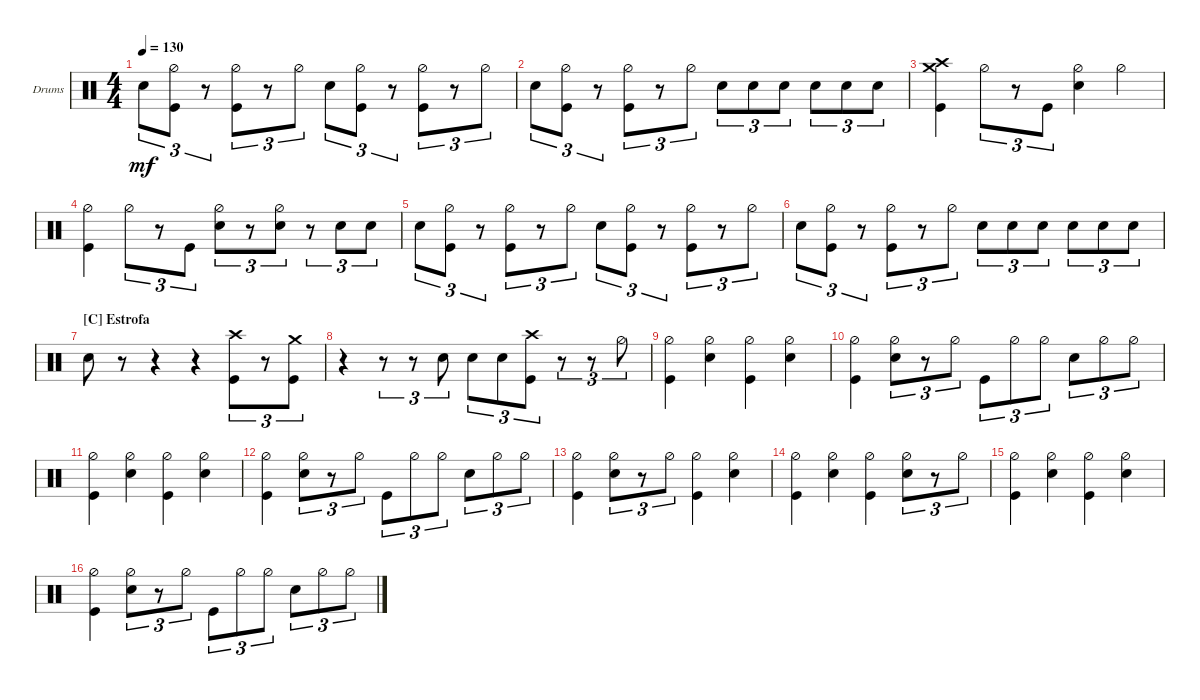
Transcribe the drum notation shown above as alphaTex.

\bracketExtendMode groupsimilarinstruments
\firstSystemTrackNameOrientation horizontal
\otherSystemsTrackNameOrientation horizontal
\track ("Drums Ghoul" "Drums") {instrument percussion}
\staff {score}
\articulation defaults
\ts (4 4)
\tempo 130
\clef neutral
\ks c "Snare (hit) 2".8{tu (3 2) dy mf}
("Kick (hit)" "Hi-Hat (half)").8{tu (3 2)} r.8{tu (3 2)} ("Kick (hit)" "Hi-Hat (half)").8{tu (3 2)} r.8{tu (3 2)} "Hi-Hat (half)".8{tu (3 2)} "Snare (hit) 2".8{tu (3 2)} ("Kick (hit)" "Hi-Hat (half)").8{tu (3 2)} r.8{tu (3 2)} ("Kick (hit)" "Hi-Hat (half)").8{tu (3 2)} r.8{tu (3 2)} "Hi-Hat (half)".8{tu (3 2)} |
"Snare (hit) 2".8{tu (3 2)} ("Kick (hit)" "Hi-Hat (half)").8{tu (3 2)} r.8{tu (3 2)} ("Kick (hit)" "Hi-Hat (half)").8{tu (3 2)} r.8{tu (3 2)} "Hi-Hat (half)".8{tu (3 2)} "Snare (hit) 2".8{tu (3 2)} "Snare (hit) 2".8{tu (3 2)} "Snare (hit) 2".8{tu (3 2)} "Snare (hit) 2".8{tu (3 2)} "Snare (hit) 2".8{tu (3 2)} "Snare (hit) 2".8{tu (3 2)} |
("Crash high (hit)" "Kick (hit)" "Crash medium (hit)").4 "Hi-Hat (half)".8{tu (3 2)} r.8{tu (3 2)} "Kick (hit)".8{tu (3 2)} ("Hi-Hat (half)" "Snare (hit) 2").4 "Hi-Hat (half)".4 |
("Kick (hit)" "Hi-Hat (half)").4 "Hi-Hat (half)".8{tu (3 2)} r.8{tu (3 2)} "Kick (hit)".8{tu (3 2)} ("Hi-Hat (half)" "Snare (hit) 2").8{tu (3 2)} r.8{tu (3 2)} ("Snare (hit) 2" "Hi-Hat (half)").8{tu (3 2)} r.8{tu (3 2)} "Snare (hit) 2".8{tu (3 2)} "Snare (hit) 2".8{tu (3 2)} |
"Snare (hit) 2".8{tu (3 2)} ("Kick (hit)" "Hi-Hat (half)").8{tu (3 2)} r.8{tu (3 2)} ("Kick (hit)" "Hi-Hat (half)").8{tu (3 2)} r.8{tu (3 2)} "Hi-Hat (half)".8{tu (3 2)} "Snare (hit) 2".8{tu (3 2)} ("Kick (hit)" "Hi-Hat (half)").8{tu (3 2)} r.8{tu (3 2)} ("Kick (hit)" "Hi-Hat (half)").8{tu (3 2)} r.8{tu (3 2)} "Hi-Hat (half)".8{tu (3 2)} |
"Snare (hit) 2".8{tu (3 2)} ("Kick (hit)" "Hi-Hat (half)").8{tu (3 2)} r.8{tu (3 2)} ("Kick (hit)" "Hi-Hat (half)").8{tu (3 2)} r.8{tu (3 2)} "Hi-Hat (half)".8{tu (3 2)} "Snare (hit) 2".8{tu (3 2)} "Snare (hit) 2".8{tu (3 2)} "Snare (hit) 2".8{tu (3 2)} "Snare (hit) 2".8{tu (3 2)} "Snare (hit) 2".8{tu (3 2)} "Snare (hit) 2".8{tu (3 2)} |
\section ("C" "Estrofa")
"Snare (hit) 2".8 r.8 r.4 r.4 ("Kick (hit)" "Crash high (hit)").8{tu (3 2)} r.8{tu (3 2)} ("Kick (hit)" "Crash medium (hit)").8{tu (3 2)} |
r.4 r.8{tu (3 2)} r.8{tu (3 2)} "Snare (hit) 2".8{tu (3 2)} "Snare (hit) 2".8{tu (3 2)} "Snare (hit) 2".8{tu (3 2)} ("Kick (hit)" "Crash high (hit)").8{tu (3 2)} r.8{tu (3 2)} r.8{tu (3 2)} "Hi-Hat (half)".8{tu (3 2)} |
("Kick (hit)" "Hi-Hat (half)").4 ("Snare (hit) 2" "Hi-Hat (half)").4 ("Kick (hit)" "Hi-Hat (half)").4 ("Snare (hit) 2" "Hi-Hat (half)").4 |
("Kick (hit)" "Hi-Hat (half)").4 ("Snare (hit) 2" "Hi-Hat (half)").8{tu (3 2)} r.8{tu (3 2)} "Hi-Hat (half)".8{tu (3 2)} "Kick (hit)".8{tu (3 2)} "Hi-Hat (half)".8{tu (3 2)} "Hi-Hat (half)".8{tu (3 2)} "Snare (hit) 2".8{tu (3 2)} "Hi-Hat (half)".8{tu (3 2)} "Hi-Hat (half)".8{tu (3 2)} |
("Kick (hit)" "Hi-Hat (half)").4 ("Snare (hit) 2" "Hi-Hat (half)").4 ("Kick (hit)" "Hi-Hat (half)").4 ("Snare (hit) 2" "Hi-Hat (half)").4 |
("Kick (hit)" "Hi-Hat (half)").4 ("Snare (hit) 2" "Hi-Hat (half)").8{tu (3 2)} r.8{tu (3 2)} "Hi-Hat (half)".8{tu (3 2)} "Kick (hit)".8{tu (3 2)} "Hi-Hat (half)".8{tu (3 2)} "Hi-Hat (half)".8{tu (3 2)} "Snare (hit) 2".8{tu (3 2)} "Hi-Hat (half)".8{tu (3 2)} "Hi-Hat (half)".8{tu (3 2)} |
("Kick (hit)" "Hi-Hat (half)").4 ("Snare (hit) 2" "Hi-Hat (half)").8{tu (3 2)} r.8{tu (3 2)} "Hi-Hat (half)".8{tu (3 2)} ("Kick (hit)" "Hi-Hat (half)").4 ("Snare (hit) 2" "Hi-Hat (half)").4 |
("Kick (hit)" "Hi-Hat (half)").4 ("Snare (hit) 2" "Hi-Hat (half)").4 ("Kick (hit)" "Hi-Hat (half)").4 ("Snare (hit) 2" "Hi-Hat (half)").8{tu (3 2)} r.8{tu (3 2)} "Hi-Hat (half)".8{tu (3 2)} |
("Kick (hit)" "Hi-Hat (half)").4 ("Snare (hit) 2" "Hi-Hat (half)").4 ("Kick (hit)" "Hi-Hat (half)").4 ("Snare (hit) 2" "Hi-Hat (half)").4 |
("Kick (hit)" "Hi-Hat (half)").4 ("Snare (hit) 2" "Hi-Hat (half)").8{tu (3 2)} r.8{tu (3 2)} "Hi-Hat (half)".8{tu (3 2)} "Kick (hit)".8{tu (3 2)} "Hi-Hat (half)".8{tu (3 2)} "Hi-Hat (half)".8{tu (3 2)} "Snare (hit) 2".8{tu (3 2)} "Hi-Hat (half)".8{tu (3 2)} "Hi-Hat (half)".8{tu (3 2)}
